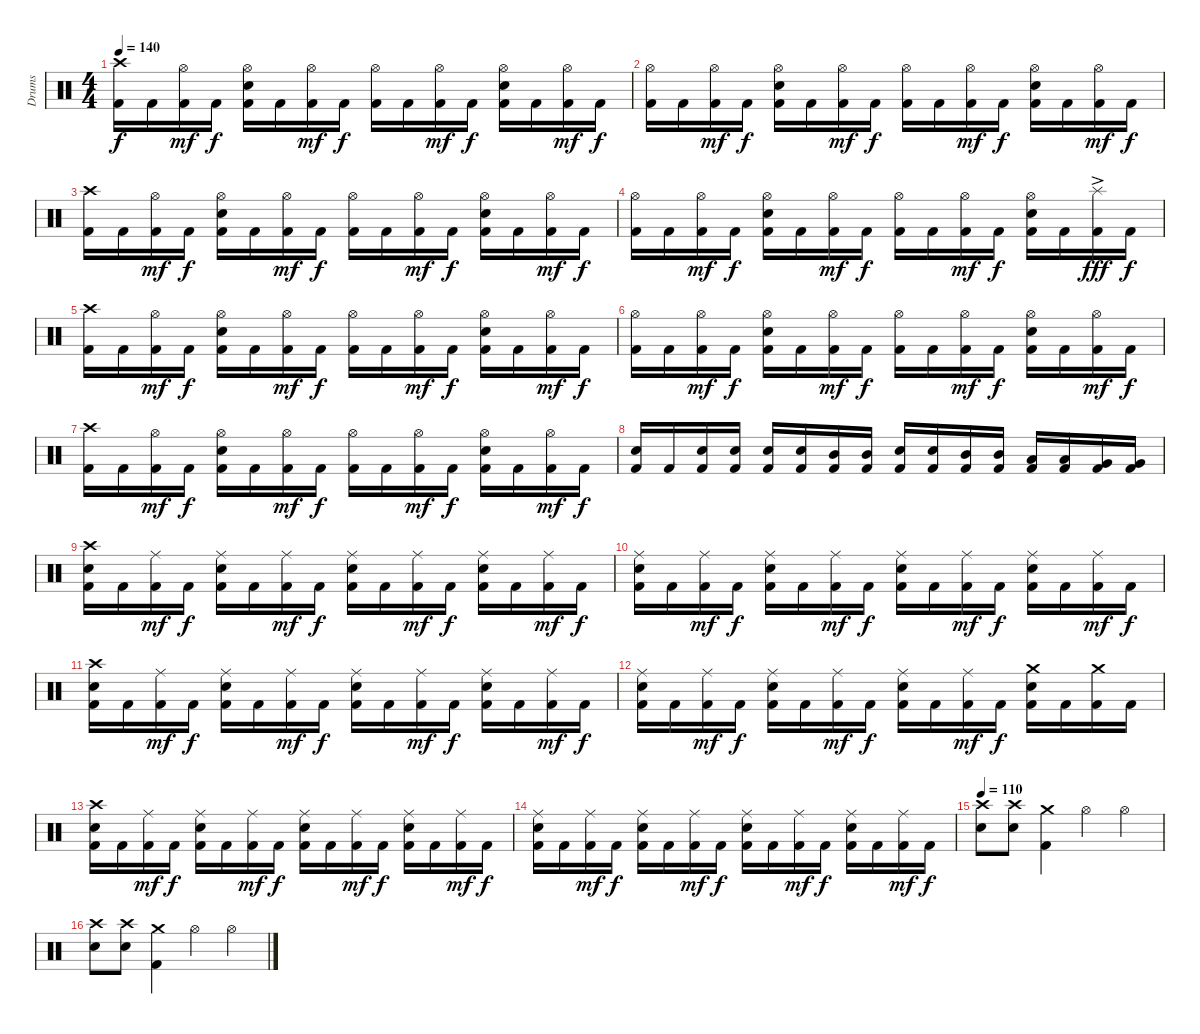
\track ("Drums" "Drums") {instrument percussion}
\staff {score}
\articulation defaults
\ts (4 4)
\tempo 140
\clef neutral
\ks c
("Crash high (hit)" "Kick (hit) 2").16{dy f} "Kick (hit) 2".16 ("Hi-Hat (open)" "Kick (hit) 2").16{dy mf} "Kick (hit) 2".16{dy f} ("Hi-Hat (open)" "Electric Snare (hit)" "Kick (hit) 2").16 "Kick (hit) 2".16 ("Hi-Hat (open)" "Kick (hit) 2").16{dy mf} "Kick (hit) 2".16{dy f} ("Hi-Hat (open)" "Kick (hit) 2").16 "Kick (hit) 2".16 ("Hi-Hat (open)" "Kick (hit) 2").16{dy mf} "Kick (hit) 2".16{dy f} ("Hi-Hat (open)" "Electric Snare (hit)" "Kick (hit) 2").16 "Kick (hit) 2".16 ("Hi-Hat (open)" "Kick (hit) 2").16{dy mf} "Kick (hit) 2".16{dy f} |
("Hi-Hat (open)" "Kick (hit) 2").16 "Kick (hit) 2".16 ("Hi-Hat (open)" "Kick (hit) 2").16{dy mf} "Kick (hit) 2".16{dy f} ("Hi-Hat (open)" "Electric Snare (hit)" "Kick (hit) 2").16 "Kick (hit) 2".16 ("Hi-Hat (open)" "Kick (hit) 2").16{dy mf} "Kick (hit) 2".16{dy f} ("Hi-Hat (open)" "Kick (hit) 2").16 "Kick (hit) 2".16 ("Hi-Hat (open)" "Kick (hit) 2").16{dy mf} "Kick (hit) 2".16{dy f} ("Hi-Hat (open)" "Electric Snare (hit)" "Kick (hit) 2").16 "Kick (hit) 2".16 ("Hi-Hat (open)" "Kick (hit) 2").16{dy mf} "Kick (hit) 2".16{dy f} |
("Crash high (hit)" "Kick (hit) 2").16 "Kick (hit) 2".16 ("Hi-Hat (open)" "Kick (hit) 2").16{dy mf} "Kick (hit) 2".16{dy f} ("Hi-Hat (open)" "Electric Snare (hit)" "Kick (hit) 2").16 "Kick (hit) 2".16 ("Hi-Hat (open)" "Kick (hit) 2").16{dy mf} "Kick (hit) 2".16{dy f} ("Hi-Hat (open)" "Kick (hit) 2").16 "Kick (hit) 2".16 ("Hi-Hat (open)" "Kick (hit) 2").16{dy mf} "Kick (hit) 2".16{dy f} ("Hi-Hat (open)" "Electric Snare (hit)" "Kick (hit) 2").16 "Kick (hit) 2".16 ("Hi-Hat (open)" "Kick (hit) 2").16{dy mf} "Kick (hit) 2".16{dy f} |
("Hi-Hat (open)" "Kick (hit) 2").16 "Kick (hit) 2".16 ("Hi-Hat (open)" "Kick (hit) 2").16{dy mf} "Kick (hit) 2".16{dy f} ("Hi-Hat (open)" "Electric Snare (hit)" "Kick (hit) 2").16 "Kick (hit) 2".16 ("Hi-Hat (open)" "Kick (hit) 2").16{dy mf} "Kick (hit) 2".16{dy f} ("Hi-Hat (open)" "Kick (hit) 2").16 "Kick (hit) 2".16 ("Hi-Hat (open)" "Kick (hit) 2").16{dy mf} "Kick (hit) 2".16{dy f} ("Hi-Hat (open)" "Electric Snare (hit)" "Kick (hit) 2").16 "Kick (hit) 2".16 ("Splash (hit)"{ac} "Kick (hit) 2").16{dy fff} "Kick (hit) 2".16{dy f} |
("Crash high (hit)" "Kick (hit) 2").16 "Kick (hit) 2".16 ("Hi-Hat (open)" "Kick (hit) 2").16{dy mf} "Kick (hit) 2".16{dy f} ("Hi-Hat (open)" "Electric Snare (hit)" "Kick (hit) 2").16 "Kick (hit) 2".16 ("Hi-Hat (open)" "Kick (hit) 2").16{dy mf} "Kick (hit) 2".16{dy f} ("Hi-Hat (open)" "Kick (hit) 2").16 "Kick (hit) 2".16 ("Hi-Hat (open)" "Kick (hit) 2").16{dy mf} "Kick (hit) 2".16{dy f} ("Hi-Hat (open)" "Electric Snare (hit)" "Kick (hit) 2").16 "Kick (hit) 2".16 ("Hi-Hat (open)" "Kick (hit) 2").16{dy mf} "Kick (hit) 2".16{dy f} |
("Hi-Hat (open)" "Kick (hit) 2").16 "Kick (hit) 2".16 ("Hi-Hat (open)" "Kick (hit) 2").16{dy mf} "Kick (hit) 2".16{dy f} ("Hi-Hat (open)" "Electric Snare (hit)" "Kick (hit) 2").16 "Kick (hit) 2".16 ("Hi-Hat (open)" "Kick (hit) 2").16{dy mf} "Kick (hit) 2".16{dy f} ("Hi-Hat (open)" "Kick (hit) 2").16 "Kick (hit) 2".16 ("Hi-Hat (open)" "Kick (hit) 2").16{dy mf} "Kick (hit) 2".16{dy f} ("Hi-Hat (open)" "Electric Snare (hit)" "Kick (hit) 2").16 "Kick (hit) 2".16 ("Hi-Hat (open)" "Kick (hit) 2").16{dy mf} "Kick (hit) 2".16{dy f} |
("Crash high (hit)" "Kick (hit) 2").16 "Kick (hit) 2".16 ("Hi-Hat (open)" "Kick (hit) 2").16{dy mf} "Kick (hit) 2".16{dy f} ("Hi-Hat (open)" "Electric Snare (hit)" "Kick (hit) 2").16 "Kick (hit) 2".16 ("Hi-Hat (open)" "Kick (hit) 2").16{dy mf} "Kick (hit) 2".16{dy f} ("Hi-Hat (open)" "Kick (hit) 2").16 "Kick (hit) 2".16 ("Hi-Hat (open)" "Kick (hit) 2").16{dy mf} "Kick (hit) 2".16{dy f} ("Hi-Hat (open)" "Electric Snare (hit)" "Kick (hit) 2").16 "Kick (hit) 2".16 ("Hi-Hat (open)" "Kick (hit) 2").16{dy mf} "Kick (hit) 2".16{dy f} |
("Electric Snare (hit)" "Kick (hit) 2").16 "Kick (hit) 2".16 ("Electric Snare (hit)" "Kick (hit) 2").16 ("Electric Snare (hit)" "Kick (hit) 2").16 ("Electric Snare (hit)" "Kick (hit) 2").16 ("Electric Snare (hit)" "Kick (hit) 2").16 ("Mid Tom (hit)" "Kick (hit) 2").16 ("Mid Tom (hit)" "Kick (hit) 2").16 ("Electric Snare (hit)" "Kick (hit) 2").16 ("Electric Snare (hit)" "Kick (hit) 2").16 ("Mid Tom (hit)" "Kick (hit) 2").16 ("Mid Tom (hit)" "Kick (hit) 2").16 ("Low Tom (hit)" "Kick (hit) 2").16 ("Low Tom (hit)" "Kick (hit) 2").16 ("Very Low Tom (hit)" "Kick (hit) 2").16 ("Very Low Tom (hit)" "Kick (hit) 2").16 |
("Crash high (hit)" "Electric Snare (hit)" "Kick (hit) 2").16 "Kick (hit) 2".16 ("Ride (middle)" "Kick (hit) 2").16{dy mf} "Kick (hit) 2".16{dy f} ("Ride (middle)" "Electric Snare (hit)" "Kick (hit) 2").16 "Kick (hit) 2".16 ("Ride (middle)" "Kick (hit) 2").16{dy mf} "Kick (hit) 2".16{dy f} ("Ride (middle)" "Electric Snare (hit)" "Kick (hit) 2").16 "Kick (hit) 2".16 ("Ride (middle)" "Kick (hit) 2").16{dy mf} "Kick (hit) 2".16{dy f} ("Ride (middle)" "Electric Snare (hit)" "Kick (hit) 2").16 "Kick (hit) 2".16 ("Ride (middle)" "Kick (hit) 2").16{dy mf} "Kick (hit) 2".16{dy f} |
("Ride (middle)" "Electric Snare (hit)" "Kick (hit) 2").16 "Kick (hit) 2".16 ("Ride (middle)" "Kick (hit) 2").16{dy mf} "Kick (hit) 2".16{dy f} ("Ride (middle)" "Electric Snare (hit)" "Kick (hit) 2").16 "Kick (hit) 2".16 ("Ride (middle)" "Kick (hit) 2").16{dy mf} "Kick (hit) 2".16{dy f} ("Ride (middle)" "Electric Snare (hit)" "Kick (hit) 2").16 "Kick (hit) 2".16 ("Ride (middle)" "Kick (hit) 2").16{dy mf} "Kick (hit) 2".16{dy f} ("Ride (middle)" "Electric Snare (hit)" "Kick (hit) 2").16 "Kick (hit) 2".16 ("Ride (middle)" "Kick (hit) 2").16{dy mf} "Kick (hit) 2".16{dy f} |
("Crash high (hit)" "Electric Snare (hit)" "Kick (hit) 2").16 "Kick (hit) 2".16 ("Ride (middle)" "Kick (hit) 2").16{dy mf} "Kick (hit) 2".16{dy f} ("Ride (middle)" "Electric Snare (hit)" "Kick (hit) 2").16 "Kick (hit) 2".16 ("Ride (middle)" "Kick (hit) 2").16{dy mf} "Kick (hit) 2".16{dy f} ("Ride (middle)" "Electric Snare (hit)" "Kick (hit) 2").16 "Kick (hit) 2".16 ("Ride (middle)" "Kick (hit) 2").16{dy mf} "Kick (hit) 2".16{dy f} ("Ride (middle)" "Electric Snare (hit)" "Kick (hit) 2").16 "Kick (hit) 2".16 ("Ride (middle)" "Kick (hit) 2").16{dy mf} "Kick (hit) 2".16{dy f} |
("Ride (middle)" "Electric Snare (hit)" "Kick (hit) 2").16 "Kick (hit) 2".16 ("Ride (middle)" "Kick (hit) 2").16{dy mf} "Kick (hit) 2".16{dy f} ("Ride (middle)" "Electric Snare (hit)" "Kick (hit) 2").16 "Kick (hit) 2".16 ("Ride (middle)" "Kick (hit) 2").16{dy mf} "Kick (hit) 2".16{dy f} ("Ride (middle)" "Electric Snare (hit)" "Kick (hit) 2").16 "Kick (hit) 2".16 ("Ride (middle)" "Kick (hit) 2").16{dy mf} "Kick (hit) 2".16{dy f} ("Crash medium (hit)" "Electric Snare (hit)" "Kick (hit) 2").16 "Kick (hit) 2".16 ("Crash medium (hit)" "Kick (hit) 2").16 "Kick (hit) 2".16 |
("Crash high (hit)" "Electric Snare (hit)" "Kick (hit) 2").16 "Kick (hit) 2".16 ("Ride (middle)" "Kick (hit) 2").16{dy mf} "Kick (hit) 2".16{dy f} ("Ride (middle)" "Electric Snare (hit)" "Kick (hit) 2").16 "Kick (hit) 2".16 ("Ride (middle)" "Kick (hit) 2").16{dy mf} "Kick (hit) 2".16{dy f} ("Ride (middle)" "Electric Snare (hit)" "Kick (hit) 2").16 "Kick (hit) 2".16 ("Ride (middle)" "Kick (hit) 2").16{dy mf} "Kick (hit) 2".16{dy f} ("Ride (middle)" "Electric Snare (hit)" "Kick (hit) 2").16 "Kick (hit) 2".16 ("Ride (middle)" "Kick (hit) 2").16{dy mf} "Kick (hit) 2".16{dy f} |
("Ride (middle)" "Electric Snare (hit)" "Kick (hit) 2").16 "Kick (hit) 2".16 ("Ride (middle)" "Kick (hit) 2").16{dy mf} "Kick (hit) 2".16{dy f} ("Ride (middle)" "Electric Snare (hit)" "Kick (hit) 2").16 "Kick (hit) 2".16 ("Ride (middle)" "Kick (hit) 2").16{dy mf} "Kick (hit) 2".16{dy f} ("Ride (middle)" "Electric Snare (hit)" "Kick (hit) 2").16 "Kick (hit) 2".16 ("Ride (middle)" "Kick (hit) 2").16{dy mf} "Kick (hit) 2".16{dy f} ("Ride (middle)" "Electric Snare (hit)" "Kick (hit) 2").16 "Kick (hit) 2".16 ("Ride (middle)" "Kick (hit) 2").16{dy mf} "Kick (hit) 2".16{dy f} |
\tempo 110
("Crash high (hit)" "Electric Snare (hit)").8 ("Crash high (hit)" "Electric Snare (hit)").8 ("Crash medium (hit)" "Kick (hit) 2").4 "Hi-Hat (open)".4 "Hi-Hat (open)".4 |
("Crash high (hit)" "Electric Snare (hit)").8 ("Crash high (hit)" "Electric Snare (hit)").8 ("Crash medium (hit)" "Kick (hit) 2").4 "Hi-Hat (open)".4 "Hi-Hat (open)".4
